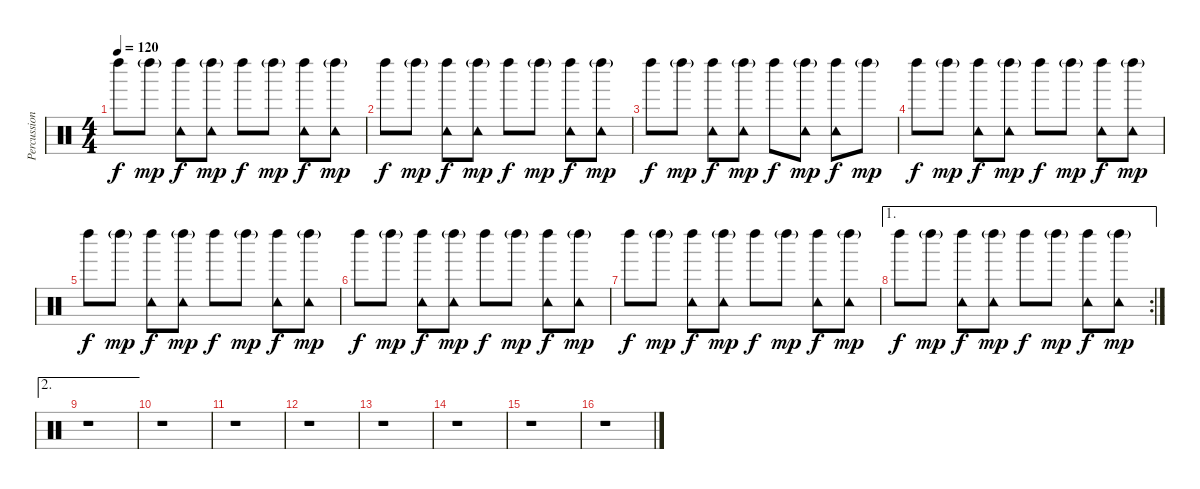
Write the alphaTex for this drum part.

\track ("Percussions" "Percussion") {instrument percussion}
\staff {score}
\articulation defaults
\ts (4 4)
\tempo 120
\clef neutral
\ks c "Left Maraca (hit)".8{dy f} "Left Maraca (hit)"{g}.8{dy mp}
("Left Maraca (hit)" "Tambourine (hit)").8{dy f} ("Left Maraca (hit)"{g} "Tambourine (hit)").8{dy mp} "Left Maraca (hit)".8{dy f} "Left Maraca (hit)"{g}.8{dy mp} ("Left Maraca (hit)" "Tambourine (hit)").8{dy f} ("Left Maraca (hit)"{g} "Tambourine (hit)").8{dy mp} |
"Left Maraca (hit)".8{dy f} "Left Maraca (hit)"{g}.8{dy mp} ("Left Maraca (hit)" "Tambourine (hit)").8{dy f} ("Left Maraca (hit)"{g} "Tambourine (hit)").8{dy mp} "Left Maraca (hit)".8{dy f} "Left Maraca (hit)"{g}.8{dy mp} ("Left Maraca (hit)" "Tambourine (hit)").8{dy f} ("Left Maraca (hit)"{g} "Tambourine (hit)").8{dy mp} |
"Left Maraca (hit)".8{dy f} "Left Maraca (hit)"{g}.8{dy mp} ("Left Maraca (hit)" "Tambourine (hit)").8{dy f} ("Left Maraca (hit)"{g} "Tambourine (hit)").8{dy mp} "Left Maraca (hit)".8{dy f} ("Left Maraca (hit)"{g} "Tambourine (hit)").8{dy mp} ("Left Maraca (hit)" "Tambourine (hit)").8{dy f} "Left Maraca (hit)"{g}.8{dy mp} |
"Left Maraca (hit)".8{dy f} "Left Maraca (hit)"{g}.8{dy mp} ("Left Maraca (hit)" "Tambourine (hit)").8{dy f} ("Left Maraca (hit)"{g} "Tambourine (hit)").8{dy mp} "Left Maraca (hit)".8{dy f} "Left Maraca (hit)"{g}.8{dy mp} ("Left Maraca (hit)" "Tambourine (hit)").8{dy f} ("Left Maraca (hit)"{g} "Tambourine (hit)").8{dy mp} |
"Left Maraca (hit)".8{dy f} "Left Maraca (hit)"{g}.8{dy mp} ("Left Maraca (hit)" "Tambourine (hit)").8{dy f} ("Left Maraca (hit)"{g} "Tambourine (hit)").8{dy mp} "Left Maraca (hit)".8{dy f} "Left Maraca (hit)"{g}.8{dy mp} ("Left Maraca (hit)" "Tambourine (hit)").8{dy f} ("Left Maraca (hit)"{g} "Tambourine (hit)").8{dy mp} |
"Left Maraca (hit)".8{dy f} "Left Maraca (hit)"{g}.8{dy mp} ("Left Maraca (hit)" "Tambourine (hit)").8{dy f} ("Left Maraca (hit)"{g} "Tambourine (hit)").8{dy mp} "Left Maraca (hit)".8{dy f} "Left Maraca (hit)"{g}.8{dy mp} ("Left Maraca (hit)" "Tambourine (hit)").8{dy f} ("Left Maraca (hit)"{g} "Tambourine (hit)").8{dy mp} |
"Left Maraca (hit)".8{dy f} "Left Maraca (hit)"{g}.8{dy mp} ("Left Maraca (hit)" "Tambourine (hit)").8{dy f} ("Left Maraca (hit)"{g} "Tambourine (hit)").8{dy mp} "Left Maraca (hit)".8{dy f} "Left Maraca (hit)"{g}.8{dy mp} ("Left Maraca (hit)" "Tambourine (hit)").8{dy f} ("Left Maraca (hit)"{g} "Tambourine (hit)").8{dy mp} |
\ae 1
\rc 2 "Left Maraca (hit)".8{dy f} "Left Maraca (hit)"{g}.8{dy mp}
("Left Maraca (hit)" "Tambourine (hit)").8{dy f} ("Left Maraca (hit)"{g} "Tambourine (hit)").8{dy mp} "Left Maraca (hit)".8{dy f} "Left Maraca (hit)"{g}.8{dy mp} ("Left Maraca (hit)" "Tambourine (hit)").8{dy f} ("Left Maraca (hit)"{g} "Tambourine (hit)").8{dy mp} |
\ae 2
r.1 |
r.1 |
r.1 |
r.1 |
r.1 |
r.1 |
r.1 |
r.1
